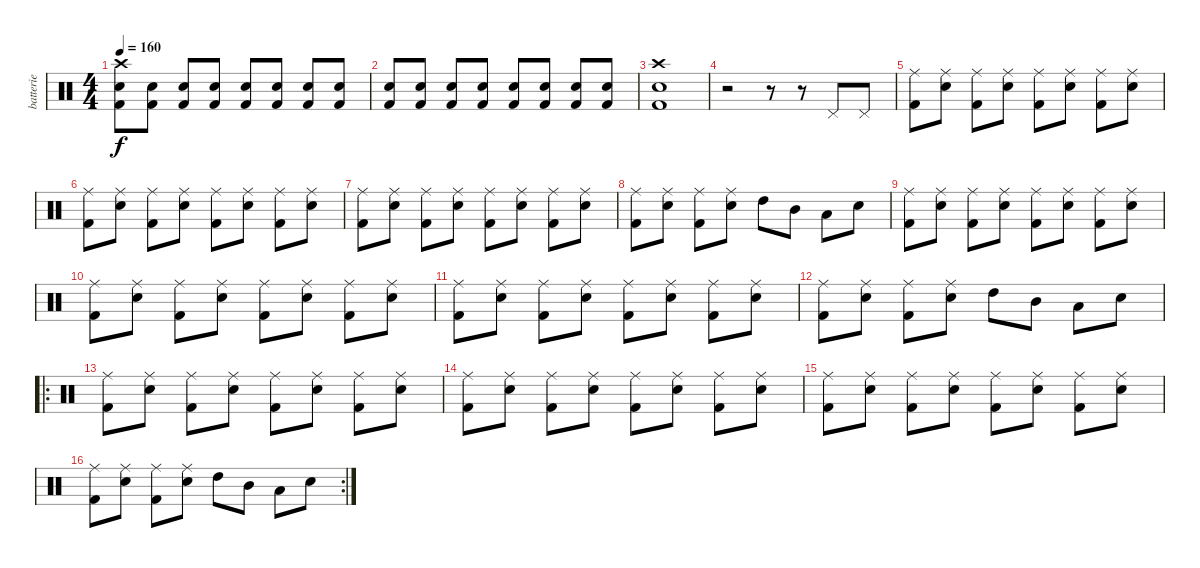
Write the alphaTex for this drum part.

\track ("batterie" "batterie") {instrument percussion}
\staff {score}
\articulation defaults
\ts (4 4)
\tempo 160
\clef neutral
\ks c
("Snare (hit) 2" "Kick (hit) 2" "Crash high (hit)").8{dy f} ("Snare (hit) 2" "Kick (hit) 2").8 ("Snare (hit) 2" "Kick (hit) 2").8 ("Snare (hit) 2" "Kick (hit) 2").8 ("Snare (hit) 2" "Kick (hit) 2").8 ("Snare (hit) 2" "Kick (hit) 2").8 ("Snare (hit) 2" "Kick (hit) 2").8 ("Snare (hit) 2" "Kick (hit) 2").8 |
("Snare (hit) 2" "Kick (hit) 2").8 ("Snare (hit) 2" "Kick (hit) 2").8 ("Snare (hit) 2" "Kick (hit) 2").8 ("Snare (hit) 2" "Kick (hit) 2").8 ("Snare (hit) 2" "Kick (hit) 2").8 ("Snare (hit) 2" "Kick (hit) 2").8 ("Snare (hit) 2" "Kick (hit) 2").8 ("Snare (hit) 2" "Kick (hit) 2").8 |
("Kick (hit) 2" "Snare (hit) 2" "Crash high (hit)").1 |
r.2 r.8 r.8 "Pedal Hi-Hat (hit)".8 "Pedal Hi-Hat (hit)".8 |
("Kick (hit) 2" "Ride (middle)").8 ("Snare (hit) 2" "Ride (middle)").8 ("Kick (hit) 2" "Ride (middle)").8 ("Snare (hit) 2" "Ride (middle)").8 ("Kick (hit) 2" "Ride (middle)").8 ("Snare (hit) 2" "Ride (middle)").8 ("Kick (hit) 2" "Ride (middle)").8 ("Snare (hit) 2" "Ride (middle)").8 |
("Kick (hit) 2" "Ride (middle)").8 ("Snare (hit) 2" "Ride (middle)").8 ("Kick (hit) 2" "Ride (middle)").8 ("Snare (hit) 2" "Ride (middle)").8 ("Kick (hit) 2" "Ride (middle)").8 ("Snare (hit) 2" "Ride (middle)").8 ("Kick (hit) 2" "Ride (middle)").8 ("Snare (hit) 2" "Ride (middle)").8 |
("Kick (hit) 2" "Ride (middle)").8 ("Snare (hit) 2" "Ride (middle)").8 ("Kick (hit) 2" "Ride (middle)").8 ("Snare (hit) 2" "Ride (middle)").8 ("Kick (hit) 2" "Ride (middle)").8 ("Snare (hit) 2" "Ride (middle)").8 ("Kick (hit) 2" "Ride (middle)").8 ("Snare (hit) 2" "Ride (middle)").8 |
("Kick (hit) 2" "Ride (middle)").8 ("Snare (hit) 2" "Ride (middle)").8 ("Kick (hit) 2" "Ride (middle)").8 ("Snare (hit) 2" "Ride (middle)").8 "High Tom (hit)".8 "Mid Tom (hit)".8 "Low Tom (hit)".8 "Snare (hit) 2".8 |
("Kick (hit) 2" "Ride (middle)").8 ("Snare (hit) 2" "Ride (middle)").8 ("Kick (hit) 2" "Ride (middle)").8 ("Snare (hit) 2" "Ride (middle)").8 ("Kick (hit) 2" "Ride (middle)").8 ("Snare (hit) 2" "Ride (middle)").8 ("Kick (hit) 2" "Ride (middle)").8 ("Snare (hit) 2" "Ride (middle)").8 |
("Kick (hit) 2" "Ride (middle)").8 ("Snare (hit) 2" "Ride (middle)").8 ("Kick (hit) 2" "Ride (middle)").8 ("Snare (hit) 2" "Ride (middle)").8 ("Kick (hit) 2" "Ride (middle)").8 ("Snare (hit) 2" "Ride (middle)").8 ("Kick (hit) 2" "Ride (middle)").8 ("Snare (hit) 2" "Ride (middle)").8 |
("Kick (hit) 2" "Ride (middle)").8 ("Snare (hit) 2" "Ride (middle)").8 ("Kick (hit) 2" "Ride (middle)").8 ("Snare (hit) 2" "Ride (middle)").8 ("Kick (hit) 2" "Ride (middle)").8 ("Snare (hit) 2" "Ride (middle)").8 ("Kick (hit) 2" "Ride (middle)").8 ("Snare (hit) 2" "Ride (middle)").8 |
("Kick (hit) 2" "Ride (middle)").8 ("Snare (hit) 2" "Ride (middle)").8 ("Kick (hit) 2" "Ride (middle)").8 ("Snare (hit) 2" "Ride (middle)").8 "High Tom (hit)".8 "Mid Tom (hit)".8 "Low Tom (hit)".8 "Snare (hit) 2".8 |
\ro
("Kick (hit) 2" "Ride (middle)").8 ("Snare (hit) 2" "Ride (middle)").8 ("Kick (hit) 2" "Ride (middle)").8 ("Snare (hit) 2" "Ride (middle)").8 ("Kick (hit) 2" "Ride (middle)").8 ("Snare (hit) 2" "Ride (middle)").8 ("Kick (hit) 2" "Ride (middle)").8 ("Snare (hit) 2" "Ride (middle)").8 |
("Kick (hit) 2" "Ride (middle)").8 ("Snare (hit) 2" "Ride (middle)").8 ("Kick (hit) 2" "Ride (middle)").8 ("Snare (hit) 2" "Ride (middle)").8 ("Kick (hit) 2" "Ride (middle)").8 ("Snare (hit) 2" "Ride (middle)").8 ("Kick (hit) 2" "Ride (middle)").8 ("Snare (hit) 2" "Ride (middle)").8 |
("Kick (hit) 2" "Ride (middle)").8 ("Snare (hit) 2" "Ride (middle)").8 ("Kick (hit) 2" "Ride (middle)").8 ("Snare (hit) 2" "Ride (middle)").8 ("Kick (hit) 2" "Ride (middle)").8 ("Snare (hit) 2" "Ride (middle)").8 ("Kick (hit) 2" "Ride (middle)").8 ("Snare (hit) 2" "Ride (middle)").8 |
\rc 2
("Kick (hit) 2" "Ride (middle)").8 ("Snare (hit) 2" "Ride (middle)").8 ("Kick (hit) 2" "Ride (middle)").8 ("Snare (hit) 2" "Ride (middle)").8 "High Tom (hit)".8 "Mid Tom (hit)".8 "Low Tom (hit)".8 "Snare (hit) 2".8
